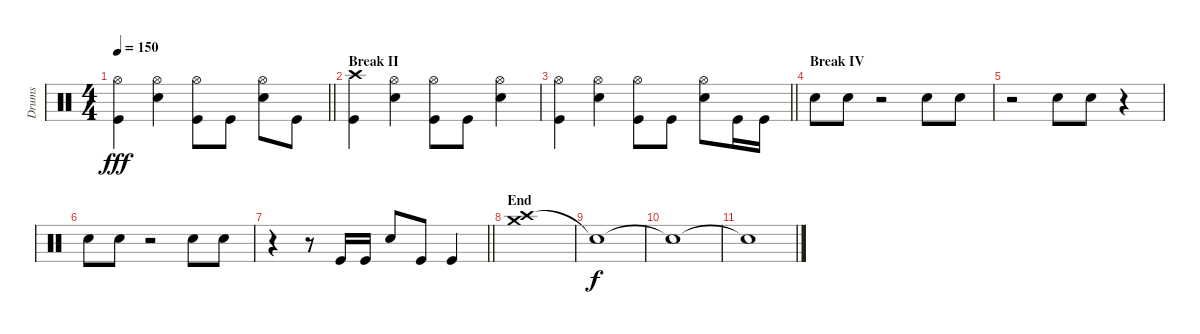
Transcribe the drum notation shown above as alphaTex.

\track ("Drums" "Drums") {instrument percussion}
\staff {score}
\articulation defaults
\ts (4 4)
\tempo 150
\clef neutral
\barLineRight lightlight
\ks c
("Hi-Hat (open)" "Kick (hit)").4{dy fff} ("Hi-Hat (open)" "Snare (hit) 2").4 ("Hi-Hat (open)" "Kick (hit)").8 "Kick (hit)".8 ("Hi-Hat (open)" "Snare (hit) 2").8 "Kick (hit)".8 |
\section ("" "Break II")
("Crash high (hit)" "Kick (hit)").4 ("Hi-Hat (open)" "Snare (hit) 2").4 ("Hi-Hat (open)" "Kick (hit)").8 "Kick (hit)".8 ("Hi-Hat (open)" "Snare (hit) 2").4 |
\barLineRight lightlight
("Hi-Hat (open)" "Kick (hit)").4 ("Hi-Hat (open)" "Snare (hit) 2").4 ("Hi-Hat (open)" "Kick (hit)").8 "Kick (hit)".8 ("Hi-Hat (open)" "Snare (hit) 2").8 "Kick (hit)".16 "Kick (hit)".16 |
\section ("" "Break IV")
"Snare (hit) 2".8 "Snare (hit) 2".8 r.2 "Snare (hit) 2".8 "Snare (hit) 2".8 |
r.2 "Snare (hit) 2".8 "Snare (hit) 2".8 r.4 |
"Snare (hit) 2".8 "Snare (hit) 2".8 r.2 "Snare (hit) 2".8 "Snare (hit) 2".8 |
\barLineRight lightlight
r.4 r.8 "Kick (hit)".16 "Kick (hit)".16 "Snare (hit) 2".8 "Kick (hit)".8 "Kick (hit)".4 |
\section ("" "End")
("Crash high (hit)" "Crash medium (hit)").1 |
"Snare (hit)"{t}.1{dy f} |
"Snare (hit)"{t}.1 |
"Snare (hit)"{t}.1
